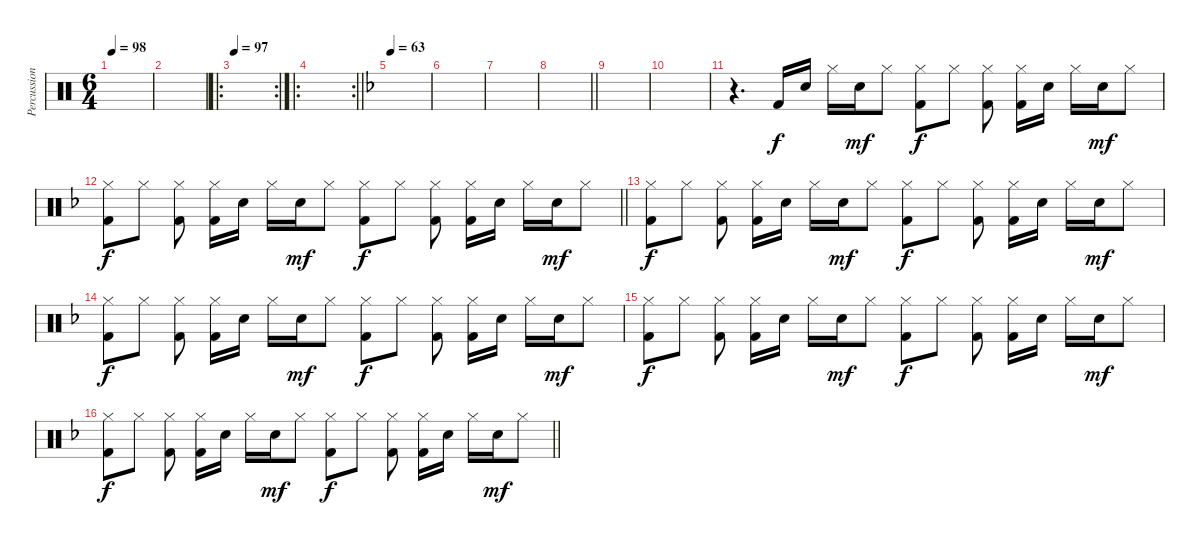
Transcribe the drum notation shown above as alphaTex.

\track ("Percussion" "Percussion") {instrument percussion}
\staff {score}
\articulation defaults
\ts (6 4)
\tempo 98
\clef neutral
\ks c
|
|
\ro
\rc 2
\tempo 97
|
\ro
\rc 2
\barLineRight lightlight
|
\tempo 63
\ks f
|
|
|
\barLineRight lightlight
|
|
|
r.4{d} "Kick (hit) 2".16{dy f} "Electric Snare (hit)".16 "Hi-Hat (closed)".16 "Electric Snare (hit)".16{dy mf} "Hi-Hat (closed)".8 ("Hi-Hat (closed)" "Kick (hit) 2").8{dy f} "Hi-Hat (closed)".8 ("Hi-Hat (closed)" "Kick (hit) 2").8{beam split} ("Hi-Hat (closed)" "Kick (hit) 2").16 "Electric Snare (hit)".16 "Hi-Hat (closed)".16 "Electric Snare (hit)".16{dy mf} "Hi-Hat (closed)".8 |
\barLineRight lightlight
("Hi-Hat (closed)" "Kick (hit) 2").8{dy f} "Hi-Hat (closed)".8 ("Hi-Hat (closed)" "Kick (hit) 2").8{beam split} ("Hi-Hat (closed)" "Kick (hit) 2").16 "Electric Snare (hit)".16 "Hi-Hat (closed)".16 "Electric Snare (hit)".16{dy mf} "Hi-Hat (closed)".8 ("Hi-Hat (closed)" "Kick (hit) 2").8{dy f} "Hi-Hat (closed)".8 ("Hi-Hat (closed)" "Kick (hit) 2").8{beam split} ("Hi-Hat (closed)" "Kick (hit) 2").16 "Electric Snare (hit)".16 "Hi-Hat (closed)".16 "Electric Snare (hit)".16{dy mf} "Hi-Hat (closed)".8 |
("Hi-Hat (closed)" "Kick (hit) 2").8{dy f} "Hi-Hat (closed)".8 ("Hi-Hat (closed)" "Kick (hit) 2").8{beam split} ("Hi-Hat (closed)" "Kick (hit) 2").16 "Electric Snare (hit)".16 "Hi-Hat (closed)".16 "Electric Snare (hit)".16{dy mf} "Hi-Hat (closed)".8 ("Hi-Hat (closed)" "Kick (hit) 2").8{dy f} "Hi-Hat (closed)".8 ("Hi-Hat (closed)" "Kick (hit) 2").8{beam split} ("Hi-Hat (closed)" "Kick (hit) 2").16 "Electric Snare (hit)".16 "Hi-Hat (closed)".16 "Electric Snare (hit)".16{dy mf} "Hi-Hat (closed)".8 |
("Hi-Hat (closed)" "Kick (hit) 2").8{dy f} "Hi-Hat (closed)".8 ("Hi-Hat (closed)" "Kick (hit) 2").8{beam split} ("Hi-Hat (closed)" "Kick (hit) 2").16 "Electric Snare (hit)".16 "Hi-Hat (closed)".16 "Electric Snare (hit)".16{dy mf} "Hi-Hat (closed)".8 ("Hi-Hat (closed)" "Kick (hit) 2").8{dy f} "Hi-Hat (closed)".8 ("Hi-Hat (closed)" "Kick (hit) 2").8{beam split} ("Hi-Hat (closed)" "Kick (hit) 2").16 "Electric Snare (hit)".16 "Hi-Hat (closed)".16 "Electric Snare (hit)".16{dy mf} "Hi-Hat (closed)".8 |
("Hi-Hat (closed)" "Kick (hit) 2").8{dy f} "Hi-Hat (closed)".8 ("Hi-Hat (closed)" "Kick (hit) 2").8{beam split} ("Hi-Hat (closed)" "Kick (hit) 2").16 "Electric Snare (hit)".16 "Hi-Hat (closed)".16 "Electric Snare (hit)".16{dy mf} "Hi-Hat (closed)".8 ("Hi-Hat (closed)" "Kick (hit) 2").8{dy f} "Hi-Hat (closed)".8 ("Hi-Hat (closed)" "Kick (hit) 2").8{beam split} ("Hi-Hat (closed)" "Kick (hit) 2").16 "Electric Snare (hit)".16 "Hi-Hat (closed)".16 "Electric Snare (hit)".16{dy mf} "Hi-Hat (closed)".8 |
\barLineRight lightlight
("Hi-Hat (closed)" "Kick (hit) 2").8{dy f} "Hi-Hat (closed)".8 ("Hi-Hat (closed)" "Kick (hit) 2").8{beam split} ("Hi-Hat (closed)" "Kick (hit) 2").16 "Electric Snare (hit)".16 "Hi-Hat (closed)".16 "Electric Snare (hit)".16{dy mf} "Hi-Hat (closed)".8 ("Hi-Hat (closed)" "Kick (hit) 2").8{dy f} "Hi-Hat (closed)".8 ("Hi-Hat (closed)" "Kick (hit) 2").8{beam split} ("Hi-Hat (closed)" "Kick (hit) 2").16 "Electric Snare (hit)".16 "Hi-Hat (closed)".16 "Electric Snare (hit)".16{dy mf} "Hi-Hat (closed)".8
